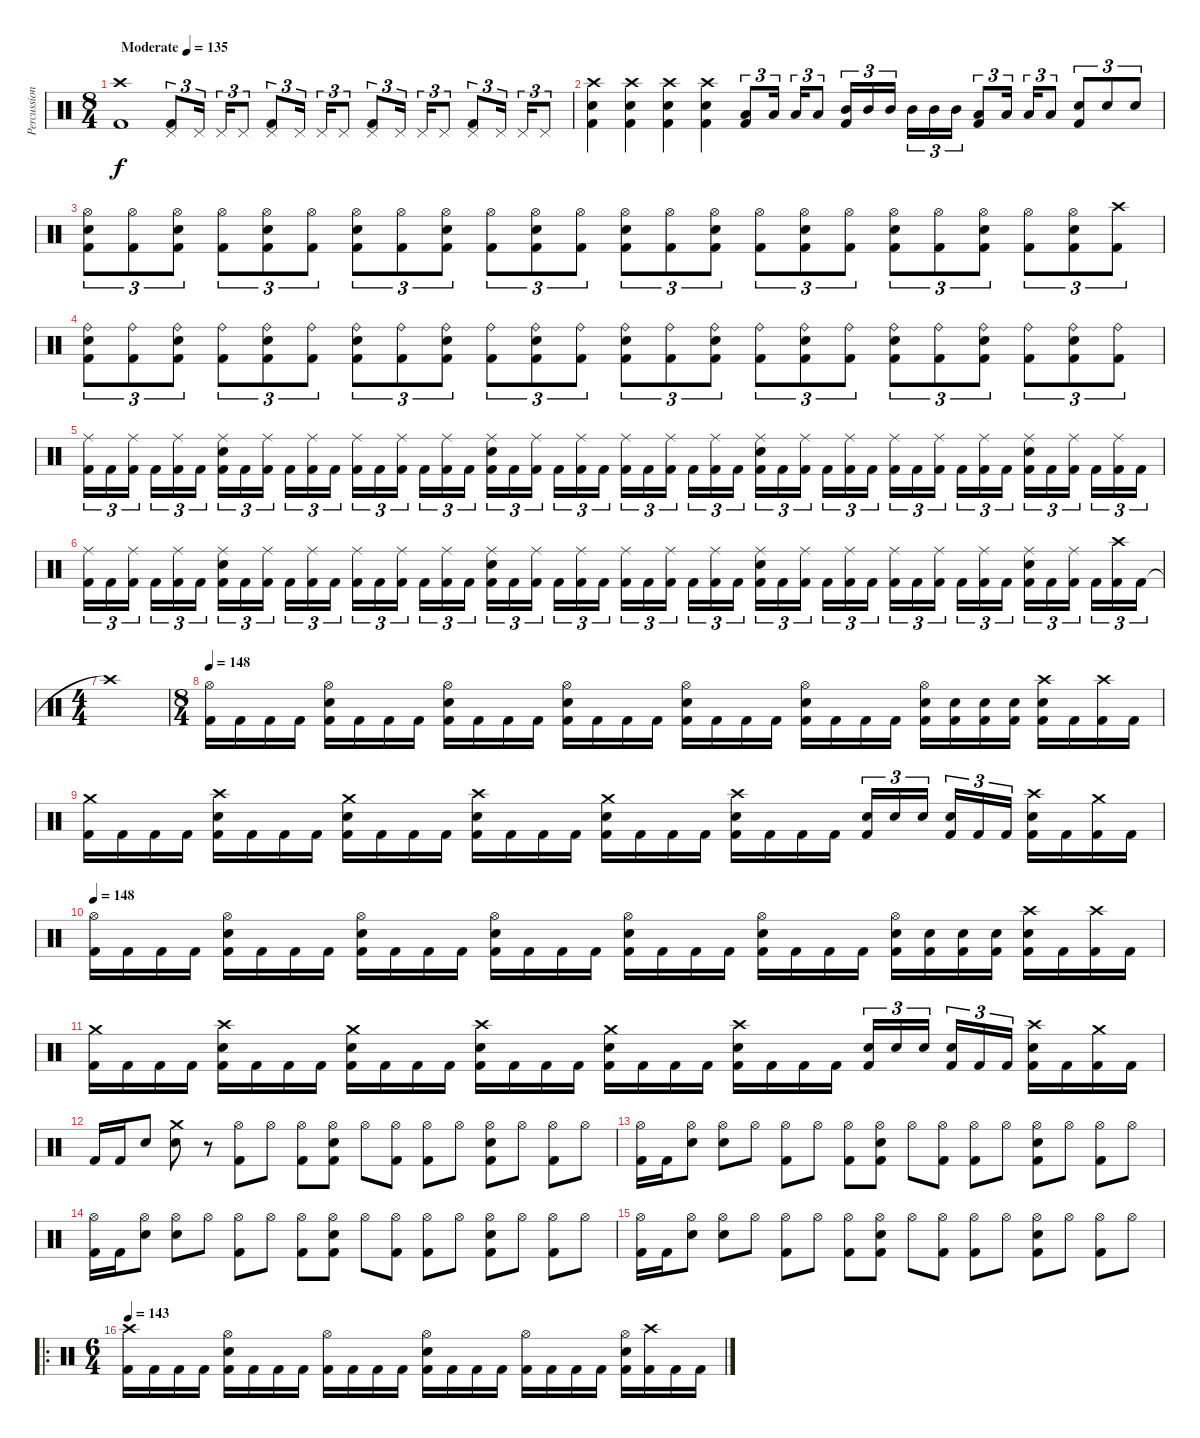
\track ("Percussion" "Percussion") {instrument percussion}
\staff {score}
\articulation defaults
\ts (8 4)
\tempo (135 "Moderate")
\clef neutral
\ks c
("Crash high (hit)" "Kick (hit) 2").1{dy f} ("Pedal Hi-Hat (hit)" "Kick (hit) 2").8{tu (3 2)} "Pedal Hi-Hat (hit)".16{tu (3 2) beam splitsecondary} "Pedal Hi-Hat (hit)".16{tu (3 2)} "Pedal Hi-Hat (hit)".8{tu (3 2)} ("Pedal Hi-Hat (hit)" "Kick (hit) 2").8{tu (3 2)} "Pedal Hi-Hat (hit)".16{tu (3 2) beam splitsecondary} "Pedal Hi-Hat (hit)".16{tu (3 2)} "Pedal Hi-Hat (hit)".8{tu (3 2)} ("Pedal Hi-Hat (hit)" "Kick (hit) 2").8{tu (3 2)} "Pedal Hi-Hat (hit)".16{tu (3 2) beam splitsecondary} "Pedal Hi-Hat (hit)".16{tu (3 2)} "Pedal Hi-Hat (hit)".8{tu (3 2)} ("Pedal Hi-Hat (hit)" "Kick (hit) 2").8{tu (3 2)} "Pedal Hi-Hat (hit)".16{tu (3 2) beam splitsecondary} "Pedal Hi-Hat (hit)".16{tu (3 2)} "Pedal Hi-Hat (hit)".8{tu (3 2)} |
("Crash high (hit)" "Electric Snare (hit)" "Kick (hit) 2").4 ("Crash high (hit)" "Electric Snare (hit)" "Kick (hit) 2").4 ("Crash high (hit)" "Electric Snare (hit)" "Kick (hit) 2").4 ("Crash high (hit)" "Electric Snare (hit)" "Kick (hit) 2").4 ("Low Tom (hit)" "Kick (hit) 2").8{tu (3 2)} "Low Tom (hit)".16{tu (3 2) beam splitsecondary} "Low Tom (hit)".16{tu (3 2)} "Low Tom (hit)".8{tu (3 2)} ("Mid Tom (hit)" "Kick (hit) 2").16{tu (3 2)} "Mid Tom (hit)".16{tu (3 2)} "Mid Tom (hit)".16{tu (3 2) beam splitsecondary} "Mid Tom (hit)".16{tu (3 2)} "Mid Tom (hit)".16{tu (3 2)} "Mid Tom (hit)".16{tu (3 2)} ("Low Tom (hit)" "Kick (hit) 2").8{tu (3 2)} "Low Tom (hit)".16{tu (3 2) beam splitsecondary} "Low Tom (hit)".16{tu (3 2)} "Low Tom (hit)".8{tu (3 2)} ("Electric Snare (hit)" "Kick (hit) 2").8{tu (3 2)} "Electric Snare (hit)".8{tu (3 2)} "Electric Snare (hit)".8{tu (3 2)} |
("Hi-Hat (open)" "Electric Snare (hit)" "Kick (hit) 2").8{tu (3 2)} ("Hi-Hat (open)" "Kick (hit) 2").8{tu (3 2)} ("Hi-Hat (open)" "Electric Snare (hit)" "Kick (hit) 2").8{tu (3 2)} ("Hi-Hat (open)" "Kick (hit) 2").8{tu (3 2)} ("Hi-Hat (open)" "Electric Snare (hit)" "Kick (hit) 2").8{tu (3 2)} ("Hi-Hat (open)" "Kick (hit) 2").8{tu (3 2)} ("Hi-Hat (open)" "Electric Snare (hit)" "Kick (hit) 2").8{tu (3 2)} ("Hi-Hat (open)" "Kick (hit) 2").8{tu (3 2)} ("Hi-Hat (open)" "Electric Snare (hit)" "Kick (hit) 2").8{tu (3 2)} ("Hi-Hat (open)" "Kick (hit) 2").8{tu (3 2)} ("Hi-Hat (open)" "Electric Snare (hit)" "Kick (hit) 2").8{tu (3 2)} ("Hi-Hat (open)" "Kick (hit) 2").8{tu (3 2)} ("Hi-Hat (open)" "Electric Snare (hit)" "Kick (hit) 2").8{tu (3 2)} ("Hi-Hat (open)" "Kick (hit) 2").8{tu (3 2)} ("Hi-Hat (open)" "Electric Snare (hit)" "Kick (hit) 2").8{tu (3 2)} ("Hi-Hat (open)" "Kick (hit) 2").8{tu (3 2)} ("Hi-Hat (open)" "Electric Snare (hit)" "Kick (hit) 2").8{tu (3 2)} ("Hi-Hat (open)" "Kick (hit) 2").8{tu (3 2)} ("Hi-Hat (open)" "Electric Snare (hit)" "Kick (hit) 2").8{tu (3 2)} ("Hi-Hat (open)" "Kick (hit) 2").8{tu (3 2)} ("Hi-Hat (open)" "Electric Snare (hit)" "Kick (hit) 2").8{tu (3 2)} ("Hi-Hat (open)" "Kick (hit) 2").8{tu (3 2)} ("Hi-Hat (open)" "Electric Snare (hit)" "Kick (hit) 2").8{tu (3 2)} ("Crash high (hit)" "Kick (hit) 2").8{tu (3 2)} |
("Ride (bell)" "Electric Snare (hit)" "Kick (hit) 2").8{tu (3 2)} ("Ride (bell)" "Kick (hit) 2").8{tu (3 2)} ("Ride (bell)" "Electric Snare (hit)" "Kick (hit) 2").8{tu (3 2)} ("Ride (bell)" "Kick (hit) 2").8{tu (3 2)} ("Ride (bell)" "Electric Snare (hit)" "Kick (hit) 2").8{tu (3 2)} ("Ride (bell)" "Kick (hit) 2").8{tu (3 2)} ("Ride (bell)" "Electric Snare (hit)" "Kick (hit) 2").8{tu (3 2)} ("Ride (bell)" "Kick (hit) 2").8{tu (3 2)} ("Ride (bell)" "Electric Snare (hit)" "Kick (hit) 2").8{tu (3 2)} ("Ride (bell)" "Kick (hit) 2").8{tu (3 2)} ("Ride (bell)" "Electric Snare (hit)" "Kick (hit) 2").8{tu (3 2)} ("Ride (bell)" "Kick (hit) 2").8{tu (3 2)} ("Ride (bell)" "Electric Snare (hit)" "Kick (hit) 2").8{tu (3 2)} ("Ride (bell)" "Kick (hit) 2").8{tu (3 2)} ("Ride (bell)" "Electric Snare (hit)" "Kick (hit) 2").8{tu (3 2)} ("Ride (bell)" "Kick (hit) 2").8{tu (3 2)} ("Ride (bell)" "Electric Snare (hit)" "Kick (hit) 2").8{tu (3 2)} ("Ride (bell)" "Kick (hit) 2").8{tu (3 2)} ("Ride (bell)" "Electric Snare (hit)" "Kick (hit) 2").8{tu (3 2)} ("Ride (bell)" "Kick (hit) 2").8{tu (3 2)} ("Ride (bell)" "Electric Snare (hit)" "Kick (hit) 2").8{tu (3 2)} ("Ride (bell)" "Kick (hit) 2").8{tu (3 2)} ("Ride (bell)" "Electric Snare (hit)" "Kick (hit) 2").8{tu (3 2)} ("Ride (bell)" "Kick (hit) 2").8{tu (3 2)} |
("Ride (middle)" "Kick (hit) 2").16{tu (3 2)} "Kick (hit) 2".16{tu (3 2)} ("Ride (middle)" "Kick (hit) 2").16{tu (3 2) beam splitsecondary} "Kick (hit) 2".16{tu (3 2)} ("Ride (middle)" "Kick (hit) 2").16{tu (3 2)} "Kick (hit) 2".16{tu (3 2)} ("Ride (middle)" "Electric Snare (hit)" "Kick (hit) 2").16{tu (3 2)} "Kick (hit) 2".16{tu (3 2)} ("Ride (middle)" "Kick (hit) 2").16{tu (3 2) beam splitsecondary} "Kick (hit) 2".16{tu (3 2)} ("Ride (middle)" "Kick (hit) 2").16{tu (3 2)} "Kick (hit) 2".16{tu (3 2)} ("Ride (middle)" "Kick (hit) 2").16{tu (3 2)} "Kick (hit) 2".16{tu (3 2)} ("Ride (middle)" "Kick (hit) 2").16{tu (3 2) beam splitsecondary} "Kick (hit) 2".16{tu (3 2)} ("Ride (middle)" "Kick (hit) 2").16{tu (3 2)} "Kick (hit) 2".16{tu (3 2)} ("Ride (middle)" "Electric Snare (hit)" "Kick (hit) 2").16{tu (3 2)} "Kick (hit) 2".16{tu (3 2)} ("Ride (middle)" "Kick (hit) 2").16{tu (3 2) beam splitsecondary} "Kick (hit) 2".16{tu (3 2)} ("Ride (middle)" "Kick (hit) 2").16{tu (3 2)} "Kick (hit) 2".16{tu (3 2)} ("Ride (middle)" "Kick (hit) 2").16{tu (3 2)} "Kick (hit) 2".16{tu (3 2)} ("Ride (middle)" "Kick (hit) 2").16{tu (3 2) beam splitsecondary} "Kick (hit) 2".16{tu (3 2)} ("Ride (middle)" "Kick (hit) 2").16{tu (3 2)} "Kick (hit) 2".16{tu (3 2)} ("Ride (middle)" "Electric Snare (hit)" "Kick (hit) 2").16{tu (3 2)} "Kick (hit) 2".16{tu (3 2)} ("Ride (middle)" "Kick (hit) 2").16{tu (3 2) beam splitsecondary} "Kick (hit) 2".16{tu (3 2)} ("Ride (middle)" "Kick (hit) 2").16{tu (3 2)} "Kick (hit) 2".16{tu (3 2)} ("Ride (middle)" "Kick (hit) 2").16{tu (3 2)} "Kick (hit) 2".16{tu (3 2)} ("Ride (middle)" "Kick (hit) 2").16{tu (3 2) beam splitsecondary} "Kick (hit) 2".16{tu (3 2)} ("Ride (middle)" "Kick (hit) 2").16{tu (3 2)} "Kick (hit) 2".16{tu (3 2)} ("Ride (middle)" "Electric Snare (hit)" "Kick (hit) 2").16{tu (3 2)} "Kick (hit) 2".16{tu (3 2)} ("Ride (middle)" "Kick (hit) 2").16{tu (3 2) beam splitsecondary} "Kick (hit) 2".16{tu (3 2)} ("Ride (middle)" "Kick (hit) 2").16{tu (3 2)} "Kick (hit) 2".16{tu (3 2)} |
("Ride (middle)" "Kick (hit) 2").16{tu (3 2)} "Kick (hit) 2".16{tu (3 2)} ("Ride (middle)" "Kick (hit) 2").16{tu (3 2) beam splitsecondary} "Kick (hit) 2".16{tu (3 2)} ("Ride (middle)" "Kick (hit) 2").16{tu (3 2)} "Kick (hit) 2".16{tu (3 2)} ("Ride (middle)" "Electric Snare (hit)" "Kick (hit) 2").16{tu (3 2)} "Kick (hit) 2".16{tu (3 2)} ("Ride (middle)" "Kick (hit) 2").16{tu (3 2) beam splitsecondary} "Kick (hit) 2".16{tu (3 2)} ("Ride (middle)" "Kick (hit) 2").16{tu (3 2)} "Kick (hit) 2".16{tu (3 2)} ("Ride (middle)" "Kick (hit) 2").16{tu (3 2)} "Kick (hit) 2".16{tu (3 2)} ("Ride (middle)" "Kick (hit) 2").16{tu (3 2) beam splitsecondary} "Kick (hit) 2".16{tu (3 2)} ("Ride (middle)" "Kick (hit) 2").16{tu (3 2)} "Kick (hit) 2".16{tu (3 2)} ("Ride (middle)" "Electric Snare (hit)" "Kick (hit) 2").16{tu (3 2)} "Kick (hit) 2".16{tu (3 2)} ("Ride (middle)" "Kick (hit) 2").16{tu (3 2) beam splitsecondary} "Kick (hit) 2".16{tu (3 2)} ("Ride (middle)" "Kick (hit) 2").16{tu (3 2)} "Kick (hit) 2".16{tu (3 2)} ("Ride (middle)" "Kick (hit) 2").16{tu (3 2)} "Kick (hit) 2".16{tu (3 2)} ("Ride (middle)" "Kick (hit) 2").16{tu (3 2) beam splitsecondary} "Kick (hit) 2".16{tu (3 2)} ("Ride (middle)" "Kick (hit) 2").16{tu (3 2)} "Kick (hit) 2".16{tu (3 2)} ("Ride (middle)" "Electric Snare (hit)" "Kick (hit) 2").16{tu (3 2)} "Kick (hit) 2".16{tu (3 2)} ("Ride (middle)" "Kick (hit) 2").16{tu (3 2) beam splitsecondary} "Kick (hit) 2".16{tu (3 2)} ("Ride (middle)" "Kick (hit) 2").16{tu (3 2)} "Kick (hit) 2".16{tu (3 2)} ("Ride (middle)" "Kick (hit) 2").16{tu (3 2)} "Kick (hit) 2".16{tu (3 2)} ("Ride (middle)" "Kick (hit) 2").16{tu (3 2) beam splitsecondary} "Kick (hit) 2".16{tu (3 2)} ("Ride (middle)" "Kick (hit) 2").16{tu (3 2)} "Kick (hit) 2".16{tu (3 2)} ("Ride (middle)" "Electric Snare (hit)" "Kick (hit) 2").16{tu (3 2)} "Kick (hit) 2".16{tu (3 2)} ("Ride (middle)" "Kick (hit) 2").16{tu (3 2) beam splitsecondary} "Kick (hit) 2".16{tu (3 2)} ("Crash high (hit)" "Kick (hit) 2").16{tu (3 2)} "Kick (hit) 2".16{tu (3 2)} |
\ts (4 4)
"Crash high (hit)"{t}.1 |
\ts (8 4)
\tempo 148
("Hi-Hat (open)" "Kick (hit) 2").16 "Kick (hit) 2".16 "Kick (hit) 2".16 "Kick (hit) 2".16 ("Hi-Hat (open)" "Electric Snare (hit)" "Kick (hit) 2").16 "Kick (hit) 2".16 "Kick (hit) 2".16 "Kick (hit) 2".16 ("Hi-Hat (open)" "Electric Snare (hit)" "Kick (hit) 2").16 "Kick (hit) 2".16 "Kick (hit) 2".16 "Kick (hit) 2".16 ("Hi-Hat (open)" "Electric Snare (hit)" "Kick (hit) 2").16 "Kick (hit) 2".16 "Kick (hit) 2".16 "Kick (hit) 2".16 ("Hi-Hat (open)" "Electric Snare (hit)" "Kick (hit) 2").16 "Kick (hit) 2".16 "Kick (hit) 2".16 "Kick (hit) 2".16 ("Hi-Hat (open)" "Electric Snare (hit)" "Kick (hit) 2").16 "Kick (hit) 2".16 "Kick (hit) 2".16 "Kick (hit) 2".16 ("Hi-Hat (open)" "Electric Snare (hit)" "Kick (hit) 2").16 ("Electric Snare (hit)" "Kick (hit) 2").16 ("Electric Snare (hit)" "Kick (hit) 2").16 ("Electric Snare (hit)" "Kick (hit) 2").16 ("Crash high (hit)" "Electric Snare (hit)" "Kick (hit) 2").16 "Kick (hit) 2".16 ("Crash high (hit)" "Kick (hit) 2").16 "Kick (hit) 2".16 |
("Crash medium (hit)" "Kick (hit) 2").16 "Kick (hit) 2".16 "Kick (hit) 2".16 "Kick (hit) 2".16 ("Crash high (hit)" "Electric Snare (hit)" "Kick (hit) 2").16 "Kick (hit) 2".16 "Kick (hit) 2".16 "Kick (hit) 2".16 ("Crash medium (hit)" "Electric Snare (hit)" "Kick (hit) 2").16 "Kick (hit) 2".16 "Kick (hit) 2".16 "Kick (hit) 2".16 ("Crash high (hit)" "Electric Snare (hit)" "Kick (hit) 2").16 "Kick (hit) 2".16 "Kick (hit) 2".16 "Kick (hit) 2".16 ("Crash medium (hit)" "Electric Snare (hit)" "Kick (hit) 2").16 "Kick (hit) 2".16 "Kick (hit) 2".16 "Kick (hit) 2".16 ("Crash high (hit)" "Electric Snare (hit)" "Kick (hit) 2").16 "Kick (hit) 2".16 "Kick (hit) 2".16 "Kick (hit) 2".16 ("Electric Snare (hit)" "Kick (hit) 2").16{tu (3 2)} "Electric Snare (hit)".16{tu (3 2)} "Electric Snare (hit)".16{tu (3 2) beam splitsecondary} ("Electric Snare (hit)" "Kick (hit) 2").16{tu (3 2)} "Kick (hit) 2".16{tu (3 2)} "Kick (hit) 2".16{tu (3 2)} ("Crash high (hit)" "Electric Snare (hit)" "Kick (hit) 2").16 "Kick (hit) 2".16 ("Crash medium (hit)" "Kick (hit) 2").16 "Kick (hit) 2".16 |
\tempo 148
("Hi-Hat (open)" "Kick (hit) 2").16 "Kick (hit) 2".16 "Kick (hit) 2".16 "Kick (hit) 2".16 ("Hi-Hat (open)" "Electric Snare (hit)" "Kick (hit) 2").16 "Kick (hit) 2".16 "Kick (hit) 2".16 "Kick (hit) 2".16 ("Hi-Hat (open)" "Electric Snare (hit)" "Kick (hit) 2").16 "Kick (hit) 2".16 "Kick (hit) 2".16 "Kick (hit) 2".16 ("Hi-Hat (open)" "Electric Snare (hit)" "Kick (hit) 2").16 "Kick (hit) 2".16 "Kick (hit) 2".16 "Kick (hit) 2".16 ("Hi-Hat (open)" "Electric Snare (hit)" "Kick (hit) 2").16 "Kick (hit) 2".16 "Kick (hit) 2".16 "Kick (hit) 2".16 ("Hi-Hat (open)" "Electric Snare (hit)" "Kick (hit) 2").16 "Kick (hit) 2".16 "Kick (hit) 2".16 "Kick (hit) 2".16 ("Hi-Hat (open)" "Electric Snare (hit)" "Kick (hit) 2").16 ("Electric Snare (hit)" "Kick (hit) 2").16 ("Electric Snare (hit)" "Kick (hit) 2").16 ("Electric Snare (hit)" "Kick (hit) 2").16 ("Crash high (hit)" "Electric Snare (hit)" "Kick (hit) 2").16 "Kick (hit) 2".16 ("Crash high (hit)" "Kick (hit) 2").16 "Kick (hit) 2".16 |
("Crash medium (hit)" "Kick (hit) 2").16 "Kick (hit) 2".16 "Kick (hit) 2".16 "Kick (hit) 2".16 ("Crash high (hit)" "Electric Snare (hit)" "Kick (hit) 2").16 "Kick (hit) 2".16 "Kick (hit) 2".16 "Kick (hit) 2".16 ("Crash medium (hit)" "Electric Snare (hit)" "Kick (hit) 2").16 "Kick (hit) 2".16 "Kick (hit) 2".16 "Kick (hit) 2".16 ("Crash high (hit)" "Electric Snare (hit)" "Kick (hit) 2").16 "Kick (hit) 2".16 "Kick (hit) 2".16 "Kick (hit) 2".16 ("Crash medium (hit)" "Electric Snare (hit)" "Kick (hit) 2").16 "Kick (hit) 2".16 "Kick (hit) 2".16 "Kick (hit) 2".16 ("Crash high (hit)" "Electric Snare (hit)" "Kick (hit) 2").16 "Kick (hit) 2".16 "Kick (hit) 2".16 "Kick (hit) 2".16 ("Electric Snare (hit)" "Kick (hit) 2").16{tu (3 2)} "Electric Snare (hit)".16{tu (3 2)} "Electric Snare (hit)".16{tu (3 2) beam splitsecondary} ("Electric Snare (hit)" "Kick (hit) 2").16{tu (3 2)} "Kick (hit) 2".16{tu (3 2)} "Kick (hit) 2".16{tu (3 2)} ("Crash high (hit)" "Electric Snare (hit)" "Kick (hit) 2").16 "Kick (hit) 2".16 ("Crash medium (hit)" "Kick (hit) 2").16 "Kick (hit) 2".16 |
"Kick (hit) 2".16 "Kick (hit) 2".16 "Electric Snare (hit)".8 ("Crash medium (hit)" "Electric Snare (hit)").8 r.8 ("Hi-Hat (open)" "Kick (hit) 2").8 "Hi-Hat (open)".8 ("Hi-Hat (open)" "Kick (hit) 2").8 ("Hi-Hat (open)" "Electric Snare (hit)" "Kick (hit) 2").8 "Hi-Hat (open)".8 ("Hi-Hat (open)" "Kick (hit) 2").8 ("Hi-Hat (open)" "Kick (hit) 2").8 "Hi-Hat (open)".8 ("Hi-Hat (open)" "Electric Snare (hit)" "Kick (hit) 2").8 "Hi-Hat (open)".8 ("Hi-Hat (open)" "Kick (hit) 2").8 "Hi-Hat (open)".8 |
("Hi-Hat (open)" "Kick (hit) 2").16 "Kick (hit) 2".16 ("Hi-Hat (open)" "Electric Snare (hit)").8 ("Hi-Hat (open)" "Electric Snare (hit)").8 "Hi-Hat (open)".8 ("Hi-Hat (open)" "Kick (hit) 2").8 "Hi-Hat (open)".8 ("Hi-Hat (open)" "Kick (hit) 2").8 ("Hi-Hat (open)" "Electric Snare (hit)" "Kick (hit) 2").8 "Hi-Hat (open)".8 ("Hi-Hat (open)" "Kick (hit) 2").8 ("Hi-Hat (open)" "Kick (hit) 2").8 "Hi-Hat (open)".8 ("Hi-Hat (open)" "Electric Snare (hit)" "Kick (hit) 2").8 "Hi-Hat (open)".8 ("Hi-Hat (open)" "Kick (hit) 2").8 "Hi-Hat (open)".8 |
("Hi-Hat (open)" "Kick (hit) 2").16 "Kick (hit) 2".16 ("Hi-Hat (open)" "Electric Snare (hit)").8 ("Hi-Hat (open)" "Electric Snare (hit)").8 "Hi-Hat (open)".8 ("Hi-Hat (open)" "Kick (hit) 2").8 "Hi-Hat (open)".8 ("Hi-Hat (open)" "Kick (hit) 2").8 ("Hi-Hat (open)" "Electric Snare (hit)" "Kick (hit) 2").8 "Hi-Hat (open)".8 ("Hi-Hat (open)" "Kick (hit) 2").8 ("Hi-Hat (open)" "Kick (hit) 2").8 "Hi-Hat (open)".8 ("Hi-Hat (open)" "Electric Snare (hit)" "Kick (hit) 2").8 "Hi-Hat (open)".8 ("Hi-Hat (open)" "Kick (hit) 2").8 "Hi-Hat (open)".8 |
("Hi-Hat (open)" "Kick (hit) 2").16 "Kick (hit) 2".16 ("Hi-Hat (open)" "Electric Snare (hit)").8 ("Hi-Hat (open)" "Electric Snare (hit)").8 "Hi-Hat (open)".8 ("Hi-Hat (open)" "Kick (hit) 2").8 "Hi-Hat (open)".8 ("Hi-Hat (open)" "Kick (hit) 2").8 ("Hi-Hat (open)" "Electric Snare (hit)" "Kick (hit) 2").8 "Hi-Hat (open)".8 ("Hi-Hat (open)" "Kick (hit) 2").8 ("Hi-Hat (open)" "Kick (hit) 2").8 "Hi-Hat (open)".8 ("Hi-Hat (open)" "Electric Snare (hit)" "Kick (hit) 2").8 "Hi-Hat (open)".8 ("Hi-Hat (open)" "Kick (hit) 2").8 "Hi-Hat (open)".8 |
\ro
\ts (6 4)
\tempo 145
\tempo 143
("Crash high (hit)" "Kick (hit) 2").16 "Kick (hit) 2".16 "Kick (hit) 2".16 "Kick (hit) 2".16 ("Hi-Hat (open)" "Electric Snare (hit)" "Kick (hit) 2").16 "Kick (hit) 2".16 "Kick (hit) 2".16 "Kick (hit) 2".16 ("Hi-Hat (open)" "Kick (hit) 2").16 "Kick (hit) 2".16 "Kick (hit) 2".16 "Kick (hit) 2".16 ("Hi-Hat (open)" "Electric Snare (hit)" "Kick (hit) 2").16 "Kick (hit) 2".16 "Kick (hit) 2".16 "Kick (hit) 2".16 ("Hi-Hat (open)" "Kick (hit) 2").16 "Kick (hit) 2".16 "Kick (hit) 2".16 "Kick (hit) 2".16 ("Hi-Hat (open)" "Electric Snare (hit)" "Kick (hit) 2").16 ("Crash high (hit)" "Kick (hit) 2").16 "Kick (hit) 2".16 "Kick (hit) 2".16
